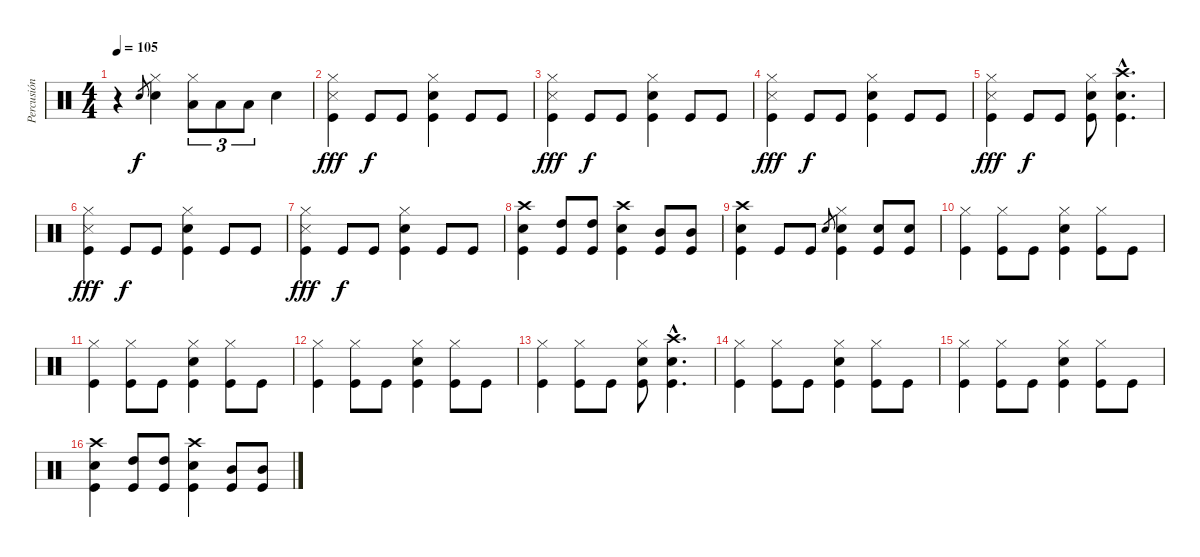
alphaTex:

\track ("Percusión" "Percusión") {instrument percussion}
\staff {score}
\articulation defaults
\ts (4 4)
\tempo 105
\clef neutral
\ks c
r.4{dy f} "Electric Snare (hit)".8{gr} ("Hi-Hat (closed)" "Electric Snare (hit)").4 ("Hi-Hat (closed)" "Low Tom (hit)").8{tu (3 2)} "Low Tom (hit)".8{tu (3 2)} "Low Tom (hit)".8{tu (3 2)} "Electric Snare (hit)".4 |
("Hi-Hat (closed)" "Snare (side stick) 3" "Kick (hit)").4{dy fff} "Kick (hit)".8{dy f} "Kick (hit)".8 ("Hi-Hat (closed)" "Snare (hit) 2" "Kick (hit)").4 "Kick (hit)".8 "Kick (hit)".8 |
("Hi-Hat (closed)" "Snare (side stick) 3" "Kick (hit)").4{dy fff} "Kick (hit)".8{dy f} "Kick (hit)".8 ("Hi-Hat (closed)" "Snare (hit) 2" "Kick (hit)").4 "Kick (hit)".8 "Kick (hit)".8 |
("Hi-Hat (closed)" "Snare (side stick) 3" "Kick (hit)").4{dy fff} "Kick (hit)".8{dy f} "Kick (hit)".8 ("Hi-Hat (closed)" "Snare (hit) 2" "Kick (hit)").4 "Kick (hit)".8 "Kick (hit)".8 |
("Hi-Hat (closed)" "Snare (side stick) 3" "Kick (hit)").4{dy fff} "Kick (hit)".8{dy f} "Kick (hit)".8 ("Hi-Hat (closed)" "Snare (hit) 2" "Kick (hit)").8 ("Crash high (hit)"{hac} "Snare (hit) 2"{hac} "Kick (hit)"{hac}).4{d} |
("Hi-Hat (closed)" "Snare (side stick) 3" "Kick (hit)").4{dy fff} "Kick (hit)".8{dy f} "Kick (hit)".8 ("Hi-Hat (closed)" "Snare (hit) 2" "Kick (hit)").4 "Kick (hit)".8 "Kick (hit)".8 |
("Hi-Hat (closed)" "Snare (side stick) 3" "Kick (hit)").4{dy fff} "Kick (hit)".8{dy f} "Kick (hit)".8 ("Hi-Hat (closed)" "Snare (hit) 2" "Kick (hit)").4 "Kick (hit)".8 "Kick (hit)".8 |
("Crash high (hit)" "Snare (hit) 2" "Kick (hit)").4 ("High Tom (hit)" "Kick (hit)").8 ("High Tom (hit)" "Kick (hit)").8 ("Crash high (hit)" "Snare (hit) 2" "Kick (hit)").4 ("Mid Tom (hit)" "Kick (hit)").8 ("Mid Tom (hit)" "Kick (hit)").8 |
("Crash high (hit)" "Snare (hit) 2" "Kick (hit)").4 "Kick (hit)".8 "Kick (hit)".8 "Snare (hit) 2".8{gr} ("Hi-Hat (closed)" "Snare (hit) 2" "Kick (hit)").4 ("Snare (hit) 2" "Kick (hit)").8 ("Snare (hit) 2" "Kick (hit)").8 |
("Hi-Hat (closed)" "Kick (hit)").4 ("Hi-Hat (closed)" "Kick (hit)").8 "Kick (hit)".8 ("Hi-Hat (closed)" "Snare (hit) 2" "Kick (hit)").4 ("Hi-Hat (closed)" "Kick (hit)").8 "Kick (hit)".8 |
("Hi-Hat (closed)" "Kick (hit)").4 ("Hi-Hat (closed)" "Kick (hit)").8 "Kick (hit)".8 ("Hi-Hat (closed)" "Snare (hit) 2" "Kick (hit)").4 ("Hi-Hat (closed)" "Kick (hit)").8 "Kick (hit)".8 |
("Hi-Hat (closed)" "Kick (hit)").4 ("Hi-Hat (closed)" "Kick (hit)").8 "Kick (hit)".8 ("Hi-Hat (closed)" "Snare (hit) 2" "Kick (hit)").4 ("Hi-Hat (closed)" "Kick (hit)").8 "Kick (hit)".8 |
("Hi-Hat (closed)" "Kick (hit)").4 ("Hi-Hat (closed)" "Kick (hit)").8 "Kick (hit)".8 ("Hi-Hat (closed)" "Snare (hit) 2" "Kick (hit)").8 ("Crash high (hit)"{hac} "Snare (hit) 2"{hac} "Kick (hit)"{hac}).4{d} |
("Hi-Hat (closed)" "Kick (hit)").4 ("Hi-Hat (closed)" "Kick (hit)").8 "Kick (hit)".8 ("Hi-Hat (closed)" "Snare (hit) 2" "Kick (hit)").4 ("Hi-Hat (closed)" "Kick (hit)").8 "Kick (hit)".8 |
("Hi-Hat (closed)" "Kick (hit)").4 ("Hi-Hat (closed)" "Kick (hit)").8 "Kick (hit)".8 ("Hi-Hat (closed)" "Snare (hit) 2" "Kick (hit)").4 ("Hi-Hat (closed)" "Kick (hit)").8 "Kick (hit)".8 |
("Crash high (hit)" "Snare (hit) 2" "Kick (hit)").4 ("High Tom (hit)" "Kick (hit)").8 ("High Tom (hit)" "Kick (hit)").8 ("Crash high (hit)" "Snare (hit) 2" "Kick (hit)").4 ("Mid Tom (hit)" "Kick (hit)").8 ("Mid Tom (hit)" "Kick (hit)").8
